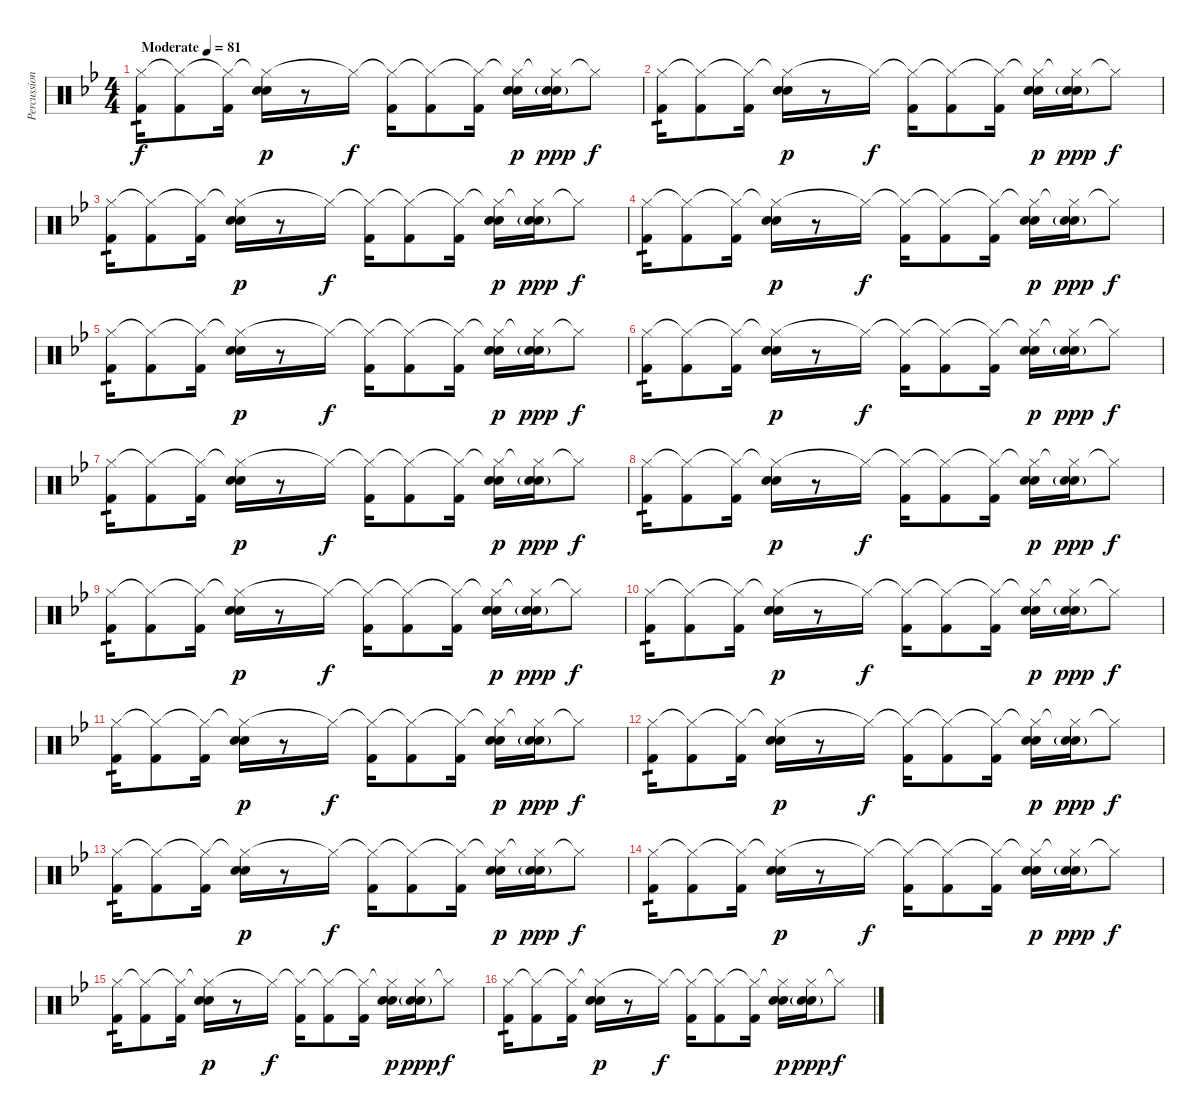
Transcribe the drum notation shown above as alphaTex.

\track ("Percussion" "Percussion") {instrument percussion}
\staff {score}
\articulation defaults
\ts (4 4)
\tempo (81 "Moderate")
\clef neutral
\ks bb
("Hi-Hat (closed)" "Kick (hit) 2").16{tp 1 dy f} ("Hi-Hat (closed)"{t} "Kick (hit) 2").8 ("Hi-Hat (closed)"{t} "Kick (hit) 2").16 ("Hi-Hat (closed)"{t} "Hand Clap (hit)" "Electric Snare (hit)").16{dy p} r.8 "Hi-Hat (closed)"{t}.16{dy f} ("Hi-Hat (closed)"{t} "Kick (hit) 2").16 ("Hi-Hat (closed)"{t} "Kick (hit) 2").8 ("Hi-Hat (closed)"{t} "Kick (hit) 2").16 ("Hi-Hat (closed)"{t} "Hand Clap (hit)" "Electric Snare (hit)").16{dy p} ("Hi-Hat (closed)"{t} "Hand Clap (hit)"{g} "Electric Snare (hit)"{g}).16{dy ppp} "Hi-Hat (closed)"{t}.8{dy f} |
("Hi-Hat (closed)" "Kick (hit) 2").16{tp 1} ("Hi-Hat (closed)"{t} "Kick (hit) 2").8 ("Hi-Hat (closed)"{t} "Kick (hit) 2").16 ("Hi-Hat (closed)"{t} "Hand Clap (hit)" "Electric Snare (hit)").16{dy p} r.8 "Hi-Hat (closed)"{t}.16{dy f} ("Hi-Hat (closed)"{t} "Kick (hit) 2").16 ("Hi-Hat (closed)"{t} "Kick (hit) 2").8 ("Hi-Hat (closed)"{t} "Kick (hit) 2").16 ("Hi-Hat (closed)"{t} "Hand Clap (hit)" "Electric Snare (hit)").16{dy p} ("Hi-Hat (closed)"{t} "Hand Clap (hit)"{g} "Electric Snare (hit)"{g}).16{dy ppp} "Hi-Hat (closed)"{t}.8{dy f} |
("Hi-Hat (closed)" "Kick (hit) 2").16{tp 1} ("Hi-Hat (closed)"{t} "Kick (hit) 2").8 ("Hi-Hat (closed)"{t} "Kick (hit) 2").16 ("Hi-Hat (closed)"{t} "Hand Clap (hit)" "Electric Snare (hit)").16{dy p} r.8 "Hi-Hat (closed)"{t}.16{dy f} ("Hi-Hat (closed)"{t} "Kick (hit) 2").16 ("Hi-Hat (closed)"{t} "Kick (hit) 2").8 ("Hi-Hat (closed)"{t} "Kick (hit) 2").16 ("Hi-Hat (closed)"{t} "Hand Clap (hit)" "Electric Snare (hit)").16{dy p} ("Hi-Hat (closed)"{t} "Hand Clap (hit)"{g} "Electric Snare (hit)"{g}).16{dy ppp} "Hi-Hat (closed)"{t}.8{dy f} |
("Hi-Hat (closed)" "Kick (hit) 2").16{tp 1} ("Hi-Hat (closed)"{t} "Kick (hit) 2").8 ("Hi-Hat (closed)"{t} "Kick (hit) 2").16 ("Hi-Hat (closed)"{t} "Hand Clap (hit)" "Electric Snare (hit)").16{dy p} r.8 "Hi-Hat (closed)"{t}.16{dy f} ("Hi-Hat (closed)"{t} "Kick (hit) 2").16 ("Hi-Hat (closed)"{t} "Kick (hit) 2").8 ("Hi-Hat (closed)"{t} "Kick (hit) 2").16 ("Hi-Hat (closed)"{t} "Hand Clap (hit)" "Electric Snare (hit)").16{dy p} ("Hi-Hat (closed)"{t} "Hand Clap (hit)"{g} "Electric Snare (hit)"{g}).16{dy ppp} "Hi-Hat (closed)"{t}.8{dy f} |
("Hi-Hat (closed)" "Kick (hit) 2").16{tp 1} ("Hi-Hat (closed)"{t} "Kick (hit) 2").8 ("Hi-Hat (closed)"{t} "Kick (hit) 2").16 ("Hi-Hat (closed)"{t} "Hand Clap (hit)" "Electric Snare (hit)").16{dy p} r.8 "Hi-Hat (closed)"{t}.16{dy f} ("Hi-Hat (closed)"{t} "Kick (hit) 2").16 ("Hi-Hat (closed)"{t} "Kick (hit) 2").8 ("Hi-Hat (closed)"{t} "Kick (hit) 2").16 ("Hi-Hat (closed)"{t} "Hand Clap (hit)" "Electric Snare (hit)").16{dy p} ("Hi-Hat (closed)"{t} "Hand Clap (hit)"{g} "Electric Snare (hit)"{g}).16{dy ppp} "Hi-Hat (closed)"{t}.8{dy f} |
("Hi-Hat (closed)" "Kick (hit) 2").16{tp 1} ("Hi-Hat (closed)"{t} "Kick (hit) 2").8 ("Hi-Hat (closed)"{t} "Kick (hit) 2").16 ("Hi-Hat (closed)"{t} "Hand Clap (hit)" "Electric Snare (hit)").16{dy p} r.8 "Hi-Hat (closed)"{t}.16{dy f} ("Hi-Hat (closed)"{t} "Kick (hit) 2").16 ("Hi-Hat (closed)"{t} "Kick (hit) 2").8 ("Hi-Hat (closed)"{t} "Kick (hit) 2").16 ("Hi-Hat (closed)"{t} "Hand Clap (hit)" "Electric Snare (hit)").16{dy p} ("Hi-Hat (closed)"{t} "Hand Clap (hit)"{g} "Electric Snare (hit)"{g}).16{dy ppp} "Hi-Hat (closed)"{t}.8{dy f} |
("Hi-Hat (closed)" "Kick (hit) 2").16{tp 1} ("Hi-Hat (closed)"{t} "Kick (hit) 2").8 ("Hi-Hat (closed)"{t} "Kick (hit) 2").16 ("Hi-Hat (closed)"{t} "Hand Clap (hit)" "Electric Snare (hit)").16{dy p} r.8 "Hi-Hat (closed)"{t}.16{dy f} ("Hi-Hat (closed)"{t} "Kick (hit) 2").16 ("Hi-Hat (closed)"{t} "Kick (hit) 2").8 ("Hi-Hat (closed)"{t} "Kick (hit) 2").16 ("Hi-Hat (closed)"{t} "Hand Clap (hit)" "Electric Snare (hit)").16{dy p} ("Hi-Hat (closed)"{t} "Hand Clap (hit)"{g} "Electric Snare (hit)"{g}).16{dy ppp} "Hi-Hat (closed)"{t}.8{dy f} |
("Hi-Hat (closed)" "Kick (hit) 2").16{tp 1} ("Hi-Hat (closed)"{t} "Kick (hit) 2").8 ("Hi-Hat (closed)"{t} "Kick (hit) 2").16 ("Hi-Hat (closed)"{t} "Hand Clap (hit)" "Electric Snare (hit)").16{dy p} r.8 "Hi-Hat (closed)"{t}.16{dy f} ("Hi-Hat (closed)"{t} "Kick (hit) 2").16 ("Hi-Hat (closed)"{t} "Kick (hit) 2").8 ("Hi-Hat (closed)"{t} "Kick (hit) 2").16 ("Hi-Hat (closed)"{t} "Hand Clap (hit)" "Electric Snare (hit)").16{dy p} ("Hi-Hat (closed)"{t} "Hand Clap (hit)"{g} "Electric Snare (hit)"{g}).16{dy ppp} "Hi-Hat (closed)"{t}.8{dy f} |
("Hi-Hat (closed)" "Kick (hit) 2").16{tp 1} ("Hi-Hat (closed)"{t} "Kick (hit) 2").8 ("Hi-Hat (closed)"{t} "Kick (hit) 2").16 ("Hi-Hat (closed)"{t} "Hand Clap (hit)" "Electric Snare (hit)").16{dy p} r.8 "Hi-Hat (closed)"{t}.16{dy f} ("Hi-Hat (closed)"{t} "Kick (hit) 2").16 ("Hi-Hat (closed)"{t} "Kick (hit) 2").8 ("Hi-Hat (closed)"{t} "Kick (hit) 2").16 ("Hi-Hat (closed)"{t} "Hand Clap (hit)" "Electric Snare (hit)").16{dy p} ("Hi-Hat (closed)"{t} "Hand Clap (hit)"{g} "Electric Snare (hit)"{g}).16{dy ppp} "Hi-Hat (closed)"{t}.8{dy f} |
("Hi-Hat (closed)" "Kick (hit) 2").16{tp 1} ("Hi-Hat (closed)"{t} "Kick (hit) 2").8 ("Hi-Hat (closed)"{t} "Kick (hit) 2").16 ("Hi-Hat (closed)"{t} "Hand Clap (hit)" "Electric Snare (hit)").16{dy p} r.8 "Hi-Hat (closed)"{t}.16{dy f} ("Hi-Hat (closed)"{t} "Kick (hit) 2").16 ("Hi-Hat (closed)"{t} "Kick (hit) 2").8 ("Hi-Hat (closed)"{t} "Kick (hit) 2").16 ("Hi-Hat (closed)"{t} "Hand Clap (hit)" "Electric Snare (hit)").16{dy p} ("Hi-Hat (closed)"{t} "Hand Clap (hit)"{g} "Electric Snare (hit)"{g}).16{dy ppp} "Hi-Hat (closed)"{t}.8{dy f} |
("Hi-Hat (closed)" "Kick (hit) 2").16{tp 1} ("Hi-Hat (closed)"{t} "Kick (hit) 2").8 ("Hi-Hat (closed)"{t} "Kick (hit) 2").16 ("Hi-Hat (closed)"{t} "Hand Clap (hit)" "Electric Snare (hit)").16{dy p} r.8 "Hi-Hat (closed)"{t}.16{dy f} ("Hi-Hat (closed)"{t} "Kick (hit) 2").16 ("Hi-Hat (closed)"{t} "Kick (hit) 2").8 ("Hi-Hat (closed)"{t} "Kick (hit) 2").16 ("Hi-Hat (closed)"{t} "Hand Clap (hit)" "Electric Snare (hit)").16{dy p} ("Hi-Hat (closed)"{t} "Hand Clap (hit)"{g} "Electric Snare (hit)"{g}).16{dy ppp} "Hi-Hat (closed)"{t}.8{dy f} |
("Hi-Hat (closed)" "Kick (hit) 2").16{tp 1} ("Hi-Hat (closed)"{t} "Kick (hit) 2").8 ("Hi-Hat (closed)"{t} "Kick (hit) 2").16 ("Hi-Hat (closed)"{t} "Hand Clap (hit)" "Electric Snare (hit)").16{dy p} r.8 "Hi-Hat (closed)"{t}.16{dy f} ("Hi-Hat (closed)"{t} "Kick (hit) 2").16 ("Hi-Hat (closed)"{t} "Kick (hit) 2").8 ("Hi-Hat (closed)"{t} "Kick (hit) 2").16 ("Hi-Hat (closed)"{t} "Hand Clap (hit)" "Electric Snare (hit)").16{dy p} ("Hi-Hat (closed)"{t} "Hand Clap (hit)"{g} "Electric Snare (hit)"{g}).16{dy ppp} "Hi-Hat (closed)"{t}.8{dy f} |
("Hi-Hat (closed)" "Kick (hit) 2").16{tp 1} ("Hi-Hat (closed)"{t} "Kick (hit) 2").8 ("Hi-Hat (closed)"{t} "Kick (hit) 2").16 ("Hi-Hat (closed)"{t} "Hand Clap (hit)" "Electric Snare (hit)").16{dy p} r.8 "Hi-Hat (closed)"{t}.16{dy f} ("Hi-Hat (closed)"{t} "Kick (hit) 2").16 ("Hi-Hat (closed)"{t} "Kick (hit) 2").8 ("Hi-Hat (closed)"{t} "Kick (hit) 2").16 ("Hi-Hat (closed)"{t} "Hand Clap (hit)" "Electric Snare (hit)").16{dy p} ("Hi-Hat (closed)"{t} "Hand Clap (hit)"{g} "Electric Snare (hit)"{g}).16{dy ppp} "Hi-Hat (closed)"{t}.8{dy f} |
("Hi-Hat (closed)" "Kick (hit) 2").16{tp 1} ("Hi-Hat (closed)"{t} "Kick (hit) 2").8 ("Hi-Hat (closed)"{t} "Kick (hit) 2").16 ("Hi-Hat (closed)"{t} "Hand Clap (hit)" "Electric Snare (hit)").16{dy p} r.8 "Hi-Hat (closed)"{t}.16{dy f} ("Hi-Hat (closed)"{t} "Kick (hit) 2").16 ("Hi-Hat (closed)"{t} "Kick (hit) 2").8 ("Hi-Hat (closed)"{t} "Kick (hit) 2").16 ("Hi-Hat (closed)"{t} "Hand Clap (hit)" "Electric Snare (hit)").16{dy p} ("Hi-Hat (closed)"{t} "Hand Clap (hit)"{g} "Electric Snare (hit)"{g}).16{dy ppp} "Hi-Hat (closed)"{t}.8{dy f} |
("Hi-Hat (closed)" "Kick (hit) 2").16{tp 1} ("Hi-Hat (closed)"{t} "Kick (hit) 2").8 ("Hi-Hat (closed)"{t} "Kick (hit) 2").16 ("Hi-Hat (closed)"{t} "Hand Clap (hit)" "Electric Snare (hit)").16{dy p} r.8 "Hi-Hat (closed)"{t}.16{dy f} ("Hi-Hat (closed)"{t} "Kick (hit) 2").16 ("Hi-Hat (closed)"{t} "Kick (hit) 2").8 ("Hi-Hat (closed)"{t} "Kick (hit) 2").16 ("Hi-Hat (closed)"{t} "Hand Clap (hit)" "Electric Snare (hit)").16{dy p} ("Hi-Hat (closed)"{t} "Hand Clap (hit)"{g} "Electric Snare (hit)"{g}).16{dy ppp} "Hi-Hat (closed)"{t}.8{dy f} |
("Hi-Hat (closed)" "Kick (hit) 2").16{tp 1} ("Hi-Hat (closed)"{t} "Kick (hit) 2").8 ("Hi-Hat (closed)"{t} "Kick (hit) 2").16 ("Hi-Hat (closed)"{t} "Hand Clap (hit)" "Electric Snare (hit)").16{dy p} r.8 "Hi-Hat (closed)"{t}.16{dy f} ("Hi-Hat (closed)"{t} "Kick (hit) 2").16 ("Hi-Hat (closed)"{t} "Kick (hit) 2").8 ("Hi-Hat (closed)"{t} "Kick (hit) 2").16 ("Hi-Hat (closed)"{t} "Hand Clap (hit)" "Electric Snare (hit)").16{dy p} ("Hi-Hat (closed)"{t} "Hand Clap (hit)"{g} "Electric Snare (hit)"{g}).16{dy ppp} "Hi-Hat (closed)"{t}.8{dy f}
